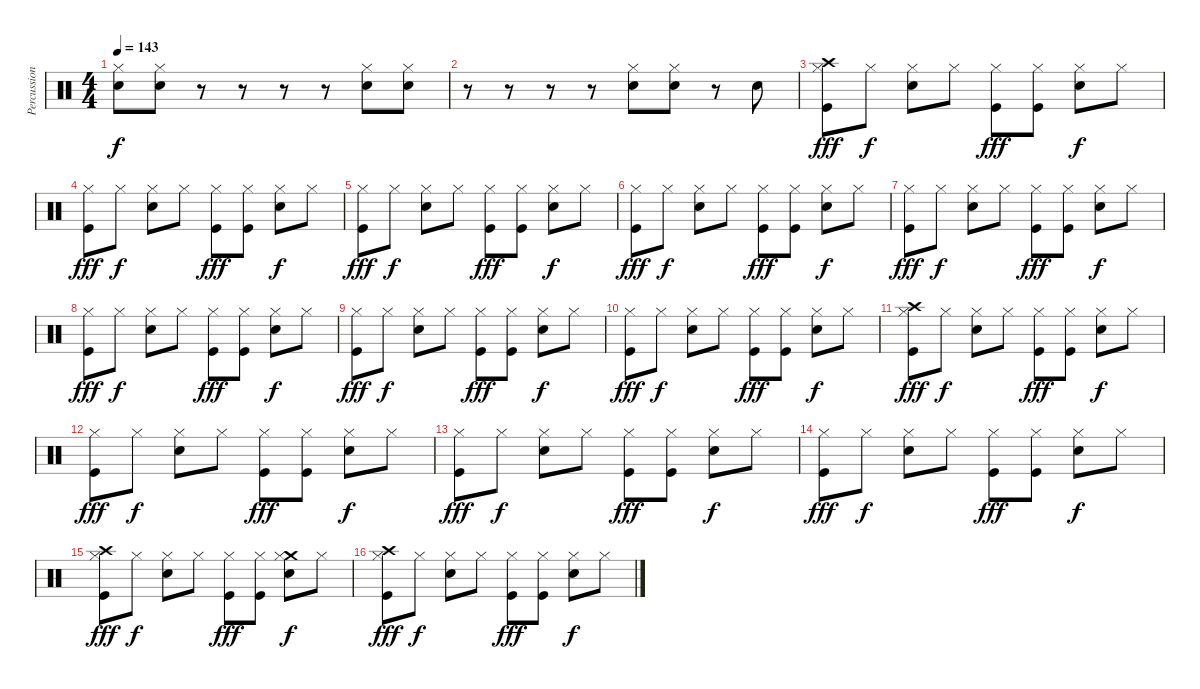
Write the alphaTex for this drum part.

\track ("Percussion" "Percussion") {instrument percussion}
\staff {score}
\articulation defaults
\ts (4 4)
\tempo 143
\clef neutral
\ks c
("Electric Snare (hit)" "Hi-Hat (closed)").8{dy f} ("Electric Snare (hit)" "Hi-Hat (closed)").8 r.8 r.8 r.8 r.8 ("Electric Snare (hit)" "Hi-Hat (closed)").8 ("Electric Snare (hit)" "Hi-Hat (closed)").8 |
r.8 r.8 r.8 r.8 ("Hi-Hat (closed)" "Electric Snare (hit)").8 ("Hi-Hat (closed)" "Electric Snare (hit)").8 r.8 "Electric Snare (hit)".8 |
("Crash high (hit)" "Kick (hit)" "Hi-Hat (closed)").8{dy fff} "Hi-Hat (closed)".8{dy f} ("Electric Snare (hit)" "Hi-Hat (closed)").8 "Hi-Hat (closed)".8 ("Kick (hit)" "Hi-Hat (closed)").8{dy fff} ("Kick (hit)" "Hi-Hat (closed)").8 ("Electric Snare (hit)" "Hi-Hat (closed)").8{dy f} "Hi-Hat (closed)".8 |
("Kick (hit)" "Hi-Hat (closed)").8{dy fff} "Hi-Hat (closed)".8{dy f} ("Electric Snare (hit)" "Hi-Hat (closed)").8 "Hi-Hat (closed)".8 ("Kick (hit)" "Hi-Hat (closed)").8{dy fff} ("Kick (hit)" "Hi-Hat (closed)").8 ("Electric Snare (hit)" "Hi-Hat (closed)").8{dy f} "Hi-Hat (closed)".8 |
("Kick (hit)" "Hi-Hat (closed)").8{dy fff} "Hi-Hat (closed)".8{dy f} ("Electric Snare (hit)" "Hi-Hat (closed)").8 "Hi-Hat (closed)".8 ("Kick (hit)" "Hi-Hat (closed)").8{dy fff} ("Kick (hit)" "Hi-Hat (closed)").8 ("Electric Snare (hit)" "Hi-Hat (closed)").8{dy f} "Hi-Hat (closed)".8 |
("Kick (hit)" "Hi-Hat (closed)").8{dy fff} "Hi-Hat (closed)".8{dy f} ("Electric Snare (hit)" "Hi-Hat (closed)").8 "Hi-Hat (closed)".8 ("Kick (hit)" "Hi-Hat (closed)").8{dy fff} ("Kick (hit)" "Hi-Hat (closed)").8 ("Electric Snare (hit)" "Hi-Hat (closed)").8{dy f} "Hi-Hat (closed)".8 |
("Kick (hit)" "Hi-Hat (closed)").8{dy fff} "Hi-Hat (closed)".8{dy f} ("Electric Snare (hit)" "Hi-Hat (closed)").8 "Hi-Hat (closed)".8 ("Kick (hit)" "Hi-Hat (closed)").8{dy fff} ("Kick (hit)" "Hi-Hat (closed)").8 ("Electric Snare (hit)" "Hi-Hat (closed)").8{dy f} "Hi-Hat (closed)".8 |
("Kick (hit)" "Hi-Hat (closed)").8{dy fff} "Hi-Hat (closed)".8{dy f} ("Electric Snare (hit)" "Hi-Hat (closed)").8 "Hi-Hat (closed)".8 ("Kick (hit)" "Hi-Hat (closed)").8{dy fff} ("Kick (hit)" "Hi-Hat (closed)").8 ("Electric Snare (hit)" "Hi-Hat (closed)").8{dy f} "Hi-Hat (closed)".8 |
("Kick (hit)" "Hi-Hat (closed)").8{dy fff} "Hi-Hat (closed)".8{dy f} ("Electric Snare (hit)" "Hi-Hat (closed)").8 "Hi-Hat (closed)".8 ("Kick (hit)" "Hi-Hat (closed)").8{dy fff} ("Kick (hit)" "Hi-Hat (closed)").8 ("Electric Snare (hit)" "Hi-Hat (closed)").8{dy f} "Hi-Hat (closed)".8 |
("Kick (hit)" "Hi-Hat (closed)").8{dy fff} "Hi-Hat (closed)".8{dy f} ("Electric Snare (hit)" "Hi-Hat (closed)").8 "Hi-Hat (closed)".8 ("Kick (hit)" "Hi-Hat (closed)").8{dy fff} ("Kick (hit)" "Hi-Hat (closed)").8 ("Electric Snare (hit)" "Hi-Hat (closed)").8{dy f} "Hi-Hat (closed)".8 |
("Crash high (hit)" "Kick (hit)" "Hi-Hat (closed)").8{dy fff} "Hi-Hat (closed)".8{dy f} ("Electric Snare (hit)" "Hi-Hat (closed)").8 "Hi-Hat (closed)".8 ("Kick (hit)" "Hi-Hat (closed)").8{dy fff} ("Kick (hit)" "Hi-Hat (closed)").8 ("Electric Snare (hit)" "Hi-Hat (closed)").8{dy f} "Hi-Hat (closed)".8 |
("Kick (hit)" "Hi-Hat (closed)").8{dy fff} "Hi-Hat (closed)".8{dy f} ("Electric Snare (hit)" "Hi-Hat (closed)").8 "Hi-Hat (closed)".8 ("Kick (hit)" "Hi-Hat (closed)").8{dy fff} ("Kick (hit)" "Hi-Hat (closed)").8 ("Electric Snare (hit)" "Hi-Hat (closed)").8{dy f} "Hi-Hat (closed)".8 |
("Kick (hit)" "Hi-Hat (closed)").8{dy fff} "Hi-Hat (closed)".8{dy f} ("Electric Snare (hit)" "Hi-Hat (closed)").8 "Hi-Hat (closed)".8 ("Kick (hit)" "Hi-Hat (closed)").8{dy fff} ("Kick (hit)" "Hi-Hat (closed)").8 ("Electric Snare (hit)" "Hi-Hat (closed)").8{dy f} "Hi-Hat (closed)".8 |
("Kick (hit)" "Hi-Hat (closed)").8{dy fff} "Hi-Hat (closed)".8{dy f} ("Electric Snare (hit)" "Hi-Hat (closed)").8 "Hi-Hat (closed)".8 ("Kick (hit)" "Hi-Hat (closed)").8{dy fff} ("Kick (hit)" "Hi-Hat (closed)").8 ("Electric Snare (hit)" "Hi-Hat (closed)").8{dy f} "Hi-Hat (closed)".8 |
("Crash high (hit)" "Kick (hit)" "Hi-Hat (closed)").8{dy fff} "Hi-Hat (closed)".8{dy f} ("Electric Snare (hit)" "Hi-Hat (closed)").8 "Hi-Hat (closed)".8 ("Kick (hit)" "Hi-Hat (closed)").8{dy fff} ("Kick (hit)" "Hi-Hat (closed)").8 ("Crash medium (hit)" "Electric Snare (hit)" "Hi-Hat (closed)").8{dy f} "Hi-Hat (closed)".8 |
("Crash high (hit)" "Kick (hit)" "Hi-Hat (closed)").8{dy fff} "Hi-Hat (closed)".8{dy f} ("Electric Snare (hit)" "Hi-Hat (closed)").8 "Hi-Hat (closed)".8 ("Kick (hit)" "Hi-Hat (closed)").8{dy fff} ("Kick (hit)" "Hi-Hat (closed)").8 ("Electric Snare (hit)" "Hi-Hat (closed)").8{dy f} "Hi-Hat (closed)".8
